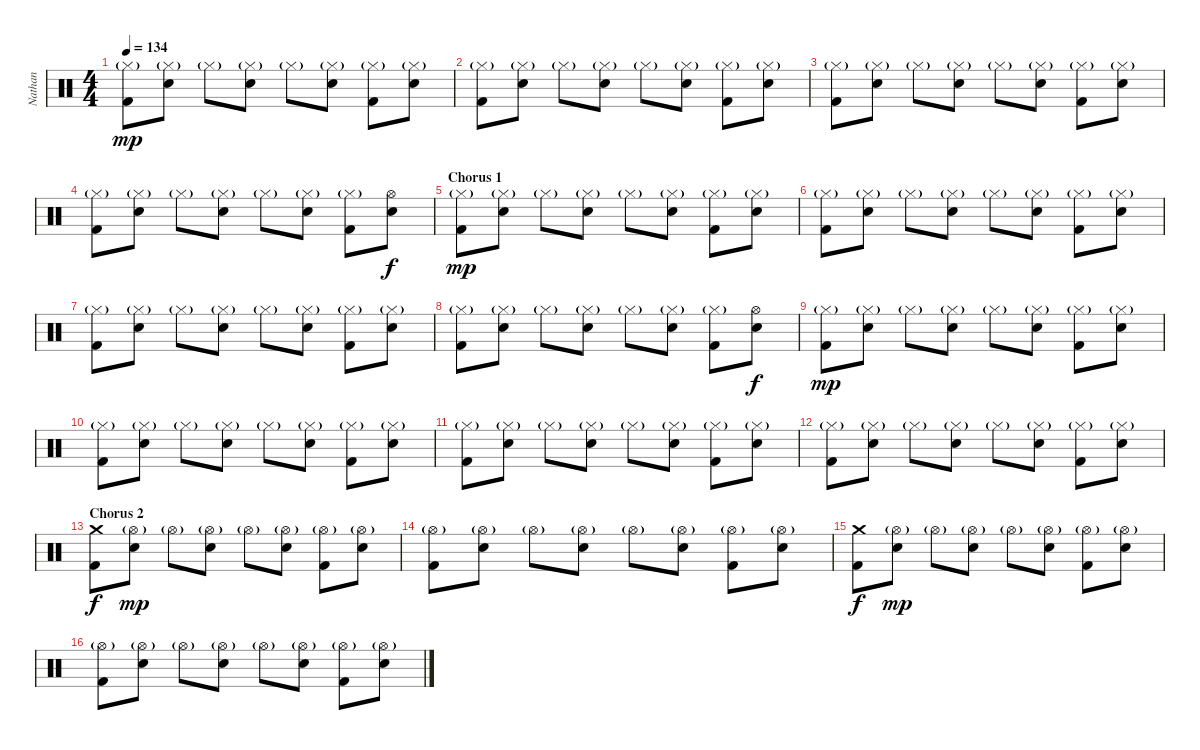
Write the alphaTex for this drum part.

\track ("Nathan" "Nathan") {instrument percussion}
\staff {score}
\articulation defaults
\ts (4 4)
\tempo 134
\clef neutral
\ks c
("Hi-Hat (closed)"{g} "Kick (hit) 2").8{dy mp} ("Hi-Hat (closed)"{g} "Snare (hit) 2").8 "Hi-Hat (closed)"{g}.8 ("Hi-Hat (closed)"{g} "Snare (hit) 2").8 "Hi-Hat (closed)"{g}.8 ("Hi-Hat (closed)"{g} "Snare (hit) 2").8 ("Hi-Hat (closed)"{g} "Kick (hit) 2").8 ("Hi-Hat (closed)"{g} "Snare (hit) 2").8 |
("Hi-Hat (closed)"{g} "Kick (hit) 2").8 ("Hi-Hat (closed)"{g} "Snare (hit) 2").8 "Hi-Hat (closed)"{g}.8 ("Hi-Hat (closed)"{g} "Snare (hit) 2").8 "Hi-Hat (closed)"{g}.8 ("Hi-Hat (closed)"{g} "Snare (hit) 2").8 ("Hi-Hat (closed)"{g} "Kick (hit) 2").8 ("Hi-Hat (closed)"{g} "Snare (hit) 2").8 |
("Hi-Hat (closed)"{g} "Kick (hit) 2").8 ("Hi-Hat (closed)"{g} "Snare (hit) 2").8 "Hi-Hat (closed)"{g}.8 ("Hi-Hat (closed)"{g} "Snare (hit) 2").8 "Hi-Hat (closed)"{g}.8 ("Hi-Hat (closed)"{g} "Snare (hit) 2").8 ("Hi-Hat (closed)"{g} "Kick (hit) 2").8 ("Hi-Hat (closed)"{g} "Snare (hit) 2").8 |
("Hi-Hat (closed)"{g} "Kick (hit) 2").8 ("Hi-Hat (closed)"{g} "Snare (hit) 2").8 "Hi-Hat (closed)"{g}.8 ("Hi-Hat (closed)"{g} "Snare (hit) 2").8 "Hi-Hat (closed)"{g}.8 ("Hi-Hat (closed)"{g} "Snare (hit) 2").8 ("Hi-Hat (closed)"{g} "Kick (hit) 2").8 ("Hi-Hat (open)" "Snare (hit) 2").8{dy f} |
\section ("" "Chorus 1")
("Hi-Hat (closed)"{g} "Kick (hit) 2").8{dy mp} ("Hi-Hat (closed)"{g} "Snare (hit) 2").8 "Hi-Hat (closed)"{g}.8 ("Hi-Hat (closed)"{g} "Snare (hit) 2").8 "Hi-Hat (closed)"{g}.8 ("Hi-Hat (closed)"{g} "Snare (hit) 2").8 ("Hi-Hat (closed)"{g} "Kick (hit) 2").8 ("Hi-Hat (closed)"{g} "Snare (hit) 2").8 |
("Hi-Hat (closed)"{g} "Kick (hit) 2").8 ("Hi-Hat (closed)"{g} "Snare (hit) 2").8 "Hi-Hat (closed)"{g}.8 ("Hi-Hat (closed)"{g} "Snare (hit) 2").8 "Hi-Hat (closed)"{g}.8 ("Hi-Hat (closed)"{g} "Snare (hit) 2").8 ("Hi-Hat (closed)"{g} "Kick (hit) 2").8 ("Hi-Hat (closed)"{g} "Snare (hit) 2").8 |
("Hi-Hat (closed)"{g} "Kick (hit) 2").8 ("Hi-Hat (closed)"{g} "Snare (hit) 2").8 "Hi-Hat (closed)"{g}.8 ("Hi-Hat (closed)"{g} "Snare (hit) 2").8 "Hi-Hat (closed)"{g}.8 ("Hi-Hat (closed)"{g} "Snare (hit) 2").8 ("Hi-Hat (closed)"{g} "Kick (hit) 2").8 ("Hi-Hat (closed)"{g} "Snare (hit) 2").8 |
("Hi-Hat (closed)"{g} "Kick (hit) 2").8 ("Hi-Hat (closed)"{g} "Snare (hit) 2").8 "Hi-Hat (closed)"{g}.8 ("Hi-Hat (closed)"{g} "Snare (hit) 2").8 "Hi-Hat (closed)"{g}.8 ("Hi-Hat (closed)"{g} "Snare (hit) 2").8 ("Hi-Hat (closed)"{g} "Kick (hit) 2").8 ("Hi-Hat (open)" "Snare (hit) 2").8{dy f} |
("Hi-Hat (closed)"{g} "Kick (hit) 2").8{dy mp} ("Hi-Hat (closed)"{g} "Snare (hit) 2").8 "Hi-Hat (closed)"{g}.8 ("Hi-Hat (closed)"{g} "Snare (hit) 2").8 "Hi-Hat (closed)"{g}.8 ("Hi-Hat (closed)"{g} "Snare (hit) 2").8 ("Hi-Hat (closed)"{g} "Kick (hit) 2").8 ("Hi-Hat (closed)"{g} "Snare (hit) 2").8 |
("Hi-Hat (closed)"{g} "Kick (hit) 2").8 ("Hi-Hat (closed)"{g} "Snare (hit) 2").8 "Hi-Hat (closed)"{g}.8 ("Hi-Hat (closed)"{g} "Snare (hit) 2").8 "Hi-Hat (closed)"{g}.8 ("Hi-Hat (closed)"{g} "Snare (hit) 2").8 ("Hi-Hat (closed)"{g} "Kick (hit) 2").8 ("Hi-Hat (closed)"{g} "Snare (hit) 2").8 |
("Hi-Hat (closed)"{g} "Kick (hit) 2").8 ("Hi-Hat (closed)"{g} "Snare (hit) 2").8 "Hi-Hat (closed)"{g}.8 ("Hi-Hat (closed)"{g} "Snare (hit) 2").8 "Hi-Hat (closed)"{g}.8 ("Hi-Hat (closed)"{g} "Snare (hit) 2").8 ("Hi-Hat (closed)"{g} "Kick (hit) 2").8 ("Hi-Hat (closed)"{g} "Snare (hit) 2").8 |
("Hi-Hat (closed)"{g} "Kick (hit) 2").8 ("Hi-Hat (closed)"{g} "Snare (hit) 2").8 "Hi-Hat (closed)"{g}.8 ("Hi-Hat (closed)"{g} "Snare (hit) 2").8 "Hi-Hat (closed)"{g}.8 ("Hi-Hat (closed)"{g} "Snare (hit) 2").8 ("Hi-Hat (closed)"{g} "Kick (hit) 2").8 ("Hi-Hat (closed)"{g} "Snare (hit) 2").8 |
\section ("" "Chorus 2")
("Crash medium (hit)" "Kick (hit) 2").8{dy f} ("Hi-Hat (open)"{g} "Snare (hit) 2").8{dy mp} "Hi-Hat (open)"{g}.8 ("Hi-Hat (open)"{g} "Snare (hit) 2").8 "Hi-Hat (open)"{g}.8 ("Hi-Hat (open)"{g} "Snare (hit) 2").8 ("Hi-Hat (open)"{g} "Kick (hit) 2").8 ("Hi-Hat (open)"{g} "Snare (hit) 2").8 |
("Hi-Hat (open)"{g} "Kick (hit) 2").8 ("Hi-Hat (open)"{g} "Snare (hit) 2").8 "Hi-Hat (open)"{g}.8 ("Hi-Hat (open)"{g} "Snare (hit) 2").8 "Hi-Hat (open)"{g}.8 ("Hi-Hat (open)"{g} "Snare (hit) 2").8 ("Hi-Hat (open)"{g} "Kick (hit) 2").8 ("Hi-Hat (open)"{g} "Snare (hit) 2").8 |
("Crash medium (hit)" "Kick (hit) 2").8{dy f} ("Hi-Hat (open)"{g} "Snare (hit) 2").8{dy mp} "Hi-Hat (open)"{g}.8 ("Hi-Hat (open)"{g} "Snare (hit) 2").8 "Hi-Hat (open)"{g}.8 ("Hi-Hat (open)"{g} "Snare (hit) 2").8 ("Hi-Hat (open)"{g} "Kick (hit) 2").8 ("Hi-Hat (open)"{g} "Snare (hit) 2").8 |
("Hi-Hat (open)"{g} "Kick (hit) 2").8 ("Hi-Hat (open)"{g} "Snare (hit) 2").8 "Hi-Hat (open)"{g}.8 ("Hi-Hat (open)"{g} "Snare (hit) 2").8 "Hi-Hat (open)"{g}.8 ("Hi-Hat (open)"{g} "Snare (hit) 2").8 ("Hi-Hat (open)"{g} "Kick (hit) 2").8 ("Hi-Hat (open)"{g} "Snare (hit) 2").8
